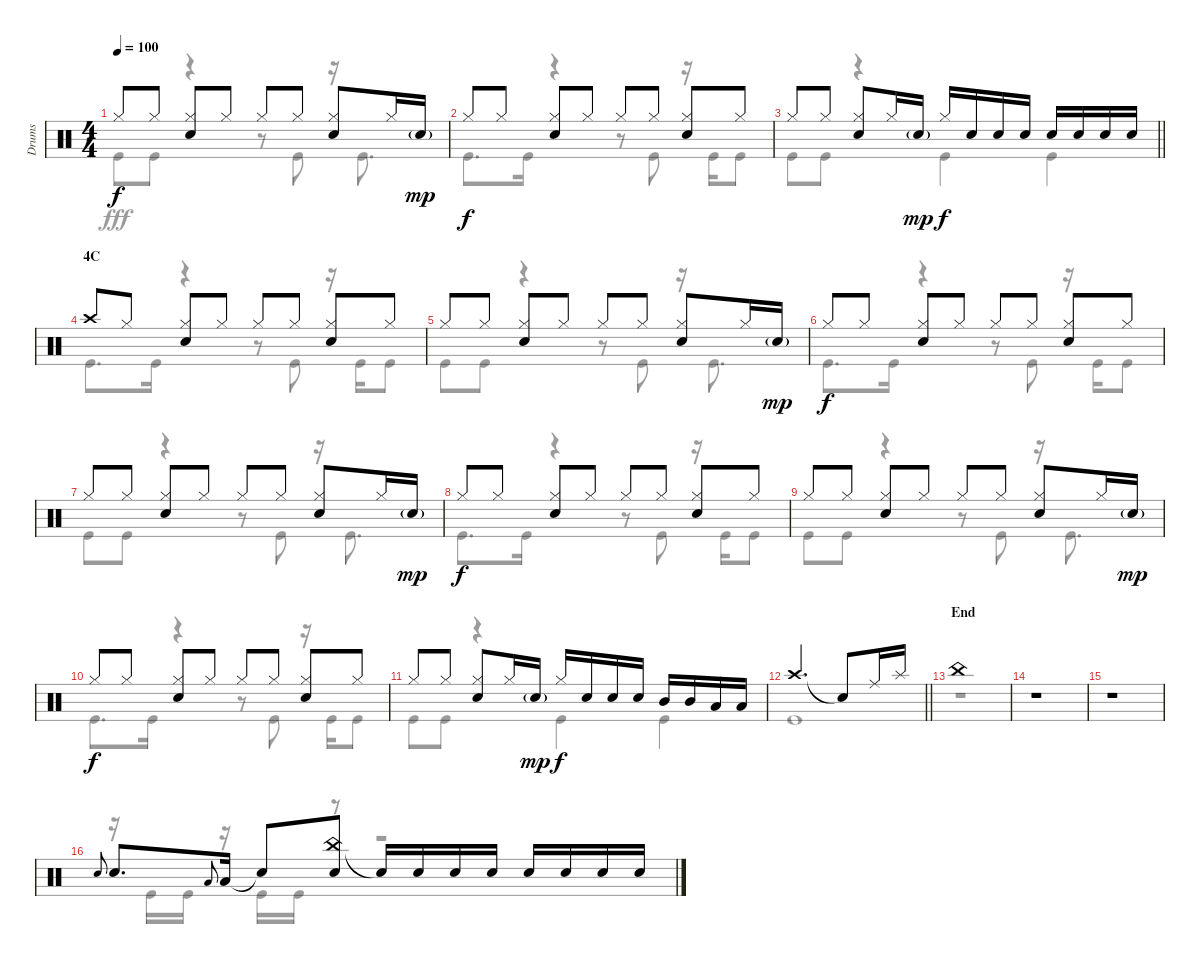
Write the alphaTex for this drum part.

\track ("Drums" "Drums") {instrument percussion}
\staff {score}
\articulation defaults
\voice
\ts (4 4)
\tempo 100
\clef neutral
\ks c "Hi-Hat (closed)".8{dy f} "Hi-Hat (closed)".8
("Hi-Hat (closed)" "Snare (hit) 2").8 "Hi-Hat (closed)".8 "Hi-Hat (closed)".8 "Hi-Hat (closed)".8 ("Hi-Hat (closed)" "Snare (hit) 2").8 "Hi-Hat (closed)".16 "Snare (hit) 2"{g}.16{dy mp} |
"Hi-Hat (closed)".8{dy f} "Hi-Hat (closed)".8 ("Hi-Hat (closed)" "Snare (hit) 2").8 "Hi-Hat (closed)".8 "Hi-Hat (closed)".8 "Hi-Hat (closed)".8 ("Hi-Hat (closed)" "Snare (hit) 2").8 "Hi-Hat (closed)".8 |
\barLineRight lightlight "Hi-Hat (closed)".8 "Hi-Hat (closed)".8
("Hi-Hat (closed)" "Snare (hit) 2").8 "Hi-Hat (closed)".16 "Snare (hit) 2"{g}.16{dy mp} "Hi-Hat (closed)".16{dy f} "Snare (hit) 2".16 "Snare (hit) 2".16 "Snare (hit) 2".16 "Snare (hit) 2".16 "Snare (hit) 2".16 "Snare (hit) 2".16 "Snare (hit) 2".16 |
\section ("" "4C")
"Crash high (hit)".8 "Hi-Hat (closed)".8 ("Hi-Hat (closed)" "Snare (hit) 2").8 "Hi-Hat (closed)".8 "Hi-Hat (closed)".8 "Hi-Hat (closed)".8 ("Hi-Hat (closed)" "Snare (hit) 2").8 "Hi-Hat (closed)".8 |
"Hi-Hat (closed)".8 "Hi-Hat (closed)".8 ("Hi-Hat (closed)" "Snare (hit) 2").8 "Hi-Hat (closed)".8 "Hi-Hat (closed)".8 "Hi-Hat (closed)".8 ("Hi-Hat (closed)" "Snare (hit) 2").8 "Hi-Hat (closed)".16 "Snare (hit) 2"{g}.16{dy mp} |
"Hi-Hat (closed)".8{dy f} "Hi-Hat (closed)".8 ("Hi-Hat (closed)" "Snare (hit) 2").8 "Hi-Hat (closed)".8 "Hi-Hat (closed)".8 "Hi-Hat (closed)".8 ("Hi-Hat (closed)" "Snare (hit) 2").8 "Hi-Hat (closed)".8 |
"Hi-Hat (closed)".8 "Hi-Hat (closed)".8 ("Hi-Hat (closed)" "Snare (hit) 2").8 "Hi-Hat (closed)".8 "Hi-Hat (closed)".8 "Hi-Hat (closed)".8 ("Hi-Hat (closed)" "Snare (hit) 2").8 "Hi-Hat (closed)".16 "Snare (hit) 2"{g}.16{dy mp} |
"Hi-Hat (closed)".8{dy f} "Hi-Hat (closed)".8 ("Hi-Hat (closed)" "Snare (hit) 2").8 "Hi-Hat (closed)".8 "Hi-Hat (closed)".8 "Hi-Hat (closed)".8 ("Hi-Hat (closed)" "Snare (hit) 2").8 "Hi-Hat (closed)".8 |
"Hi-Hat (closed)".8 "Hi-Hat (closed)".8 ("Hi-Hat (closed)" "Snare (hit) 2").8 "Hi-Hat (closed)".8 "Hi-Hat (closed)".8 "Hi-Hat (closed)".8 ("Hi-Hat (closed)" "Snare (hit) 2").8 "Hi-Hat (closed)".16 "Snare (hit) 2"{g}.16{dy mp} |
"Hi-Hat (closed)".8{dy f} "Hi-Hat (closed)".8 ("Hi-Hat (closed)" "Snare (hit) 2").8 "Hi-Hat (closed)".8 "Hi-Hat (closed)".8 "Hi-Hat (closed)".8 ("Hi-Hat (closed)" "Snare (hit) 2").8 "Hi-Hat (closed)".8 |
"Hi-Hat (closed)".8 "Hi-Hat (closed)".8 ("Hi-Hat (closed)" "Snare (hit) 2").8 "Hi-Hat (closed)".16 "Snare (hit) 2"{g}.16{dy mp} "Hi-Hat (closed)".16{dy f} "Snare (hit) 2".16 "Snare (hit) 2".16 "Snare (hit) 2".16 "Mid Tom (hit)".16 "Mid Tom (hit)".16 "Low Tom (hit)".16 "Low Tom (hit)".16 |
\barLineRight lightlight "Crash high (hit)".2{d} "Snare (hit)"{t}.8 "Ride (middle)".16 "Splash (hit)".16
|
\section ("" "End")
"China (hit)".1 |
r.1 |
r.1 |
"Snare (hit) 2".8{gr onbeat} "Snare (hit) 2".8{d} "Low Tom (hit)".8{gr onbeat} "Low Tom (hit)".16 "Snare (hit)"{t}.8 ("China (hit)" "Snare (hit) 2").8 "Snare (hit)"{t}.16 "Snare (hit) 2".16 "Snare (hit) 2".16 "Snare (hit) 2".16 "Snare (hit) 2".16 "Snare (hit) 2".16 "Snare (hit) 2".16 "Snare (hit) 2".16
\voice
\clef neutral
\ottava regular
\simile none
\ks c "Kick (hit)".8{dy fff} "Kick (hit)".8
r.4 r.8 "Kick (hit)".8 r.16 "Kick (hit)".8{d} |
"Kick (hit)".8{d} "Kick (hit)".16 r.4 r.8 "Kick (hit)".8 r.16 "Kick (hit)".16 "Kick (hit)".8 |
\barLineRight lightlight "Kick (hit)".8 "Kick (hit)".8
r.4 "Kick (hit)".4 "Kick (hit)".4 |
"Kick (hit)".8{d} "Kick (hit)".16 r.4 r.8 "Kick (hit)".8 r.16 "Kick (hit)".16 "Kick (hit)".8 |
"Kick (hit)".8 "Kick (hit)".8 r.4 r.8 "Kick (hit)".8 r.16 "Kick (hit)".8{d} |
"Kick (hit)".8{d} "Kick (hit)".16 r.4 r.8 "Kick (hit)".8 r.16 "Kick (hit)".16 "Kick (hit)".8 |
"Kick (hit)".8 "Kick (hit)".8 r.4 r.8 "Kick (hit)".8 r.16 "Kick (hit)".8{d} |
"Kick (hit)".8{d} "Kick (hit)".16 r.4 r.8 "Kick (hit)".8 r.16 "Kick (hit)".16 "Kick (hit)".8 |
"Kick (hit)".8 "Kick (hit)".8 r.4 r.8 "Kick (hit)".8 r.16 "Kick (hit)".8{d} |
"Kick (hit)".8{d} "Kick (hit)".16 r.4 r.8 "Kick (hit)".8 r.16 "Kick (hit)".16 "Kick (hit)".8 |
"Kick (hit)".8 "Kick (hit)".8 r.4 "Kick (hit)".4 "Kick (hit)".4 |
\barLineRight lightlight "Kick (hit)".1
|
r.1 |
r.1 |
r.1 |
r.16 "Kick (hit)".16 "Kick (hit)".16 r.16 "Kick (hit)".16 "Kick (hit)".16 r.8 r.2
